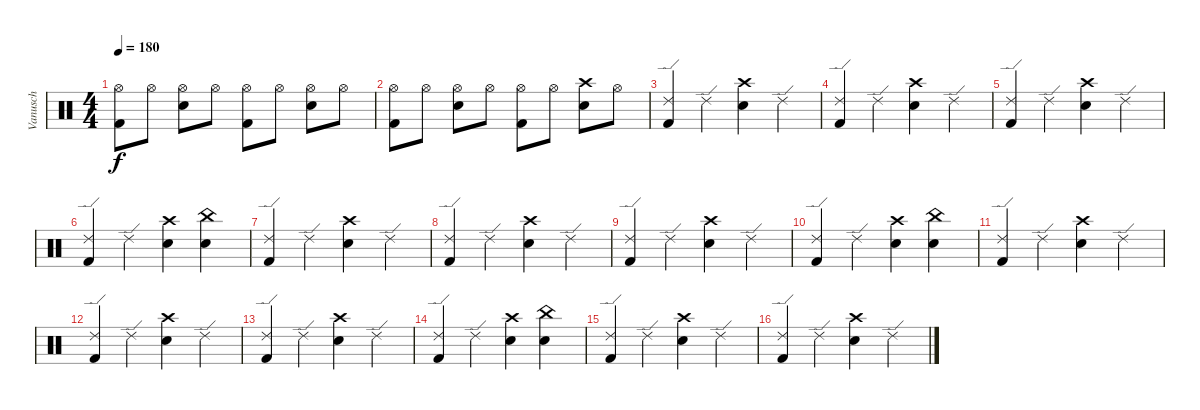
\track ("Vanusch" "Vanusch") {instrument percussion}
\staff {score}
\articulation defaults
\ts (4 4)
\tempo 180
\clef neutral
\ks c
("Hi-Hat (open)" "Kick (hit) 2").8{dy f} "Hi-Hat (open)".8 ("Hi-Hat (open)" "Snare (hit) 2").8 "Hi-Hat (open)".8 ("Hi-Hat (open)" "Kick (hit) 2").8 "Hi-Hat (open)".8 ("Hi-Hat (open)" "Snare (hit) 2").8 "Hi-Hat (open)".8 |
("Hi-Hat (open)" "Kick (hit) 2").8 "Hi-Hat (open)".8 ("Hi-Hat (open)" "Snare (hit) 2").8 "Hi-Hat (open)".8 ("Hi-Hat (open)" "Kick (hit) 2").8 "Hi-Hat (open)".8 ("Crash high (hit)" "Snare (hit) 2").8 "Hi-Hat (open)".8 |
("Ride (edge) 2" "Kick (hit) 2").4 "Ride (edge) 2".4 ("Crash high (hit)" "Snare (hit) 2").4 "Ride (edge) 2".4 |
("Ride (edge) 2" "Kick (hit) 2").4 "Ride (edge) 2".4 ("Crash high (hit)" "Snare (hit) 2").4 "Ride (edge) 2".4 |
("Ride (edge) 2" "Kick (hit) 2").4 "Ride (edge) 2".4 ("Crash high (hit)" "Snare (hit) 2").4 "Ride (edge) 2".4 |
("Ride (edge) 2" "Kick (hit) 2").4 "Ride (edge) 2".4 ("Crash high (hit)" "Snare (hit) 2").4 ("China (hit)" "Snare (hit) 2").4 |
("Ride (edge) 2" "Kick (hit) 2").4 "Ride (edge) 2".4 ("Crash high (hit)" "Snare (hit) 2").4 "Ride (edge) 2".4 |
("Ride (edge) 2" "Kick (hit) 2").4 "Ride (edge) 2".4 ("Crash high (hit)" "Snare (hit) 2").4 "Ride (edge) 2".4 |
("Ride (edge) 2" "Kick (hit) 2").4 "Ride (edge) 2".4 ("Crash high (hit)" "Snare (hit) 2").4 "Ride (edge) 2".4 |
("Ride (edge) 2" "Kick (hit) 2").4 "Ride (edge) 2".4 ("Crash high (hit)" "Snare (hit) 2").4 ("China (hit)" "Snare (hit) 2").4 |
("Ride (edge) 2" "Kick (hit) 2").4 "Ride (edge) 2".4 ("Crash high (hit)" "Snare (hit) 2").4 "Ride (edge) 2".4 |
("Ride (edge) 2" "Kick (hit) 2").4 "Ride (edge) 2".4 ("Crash high (hit)" "Snare (hit) 2").4 "Ride (edge) 2".4 |
("Ride (edge) 2" "Kick (hit) 2").4 "Ride (edge) 2".4 ("Crash high (hit)" "Snare (hit) 2").4 "Ride (edge) 2".4 |
("Ride (edge) 2" "Kick (hit) 2").4 "Ride (edge) 2".4 ("Crash high (hit)" "Snare (hit) 2").4 ("China (hit)" "Snare (hit) 2").4 |
("Ride (edge) 2" "Kick (hit) 2").4 "Ride (edge) 2".4 ("Crash high (hit)" "Snare (hit) 2").4 "Ride (edge) 2".4 |
("Ride (edge) 2" "Kick (hit) 2").4 "Ride (edge) 2".4 ("Crash high (hit)" "Snare (hit) 2").4 "Ride (edge) 2".4
